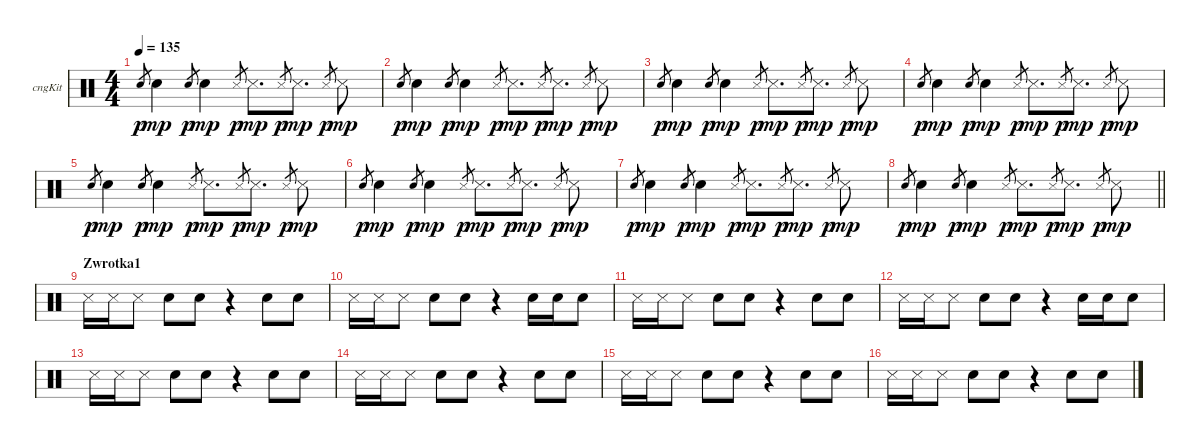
\bracketExtendMode groupsimilarinstruments
\firstSystemTrackNameOrientation horizontal
\otherSystemsTrackNameOrientation horizontal
\track ("Congas" "cngKit") {instrument percussion}
\staff {score}
\articulation defaults
\ts (4 4)
\tempo 135
\clef neutral
\ks c "Snare (hit) 2".8{gr dy p} "Snare (hit) 2".4{dy mp} "Snare (hit) 2".8{gr dy p} "Snare (hit) 2".4{dy mp} "Snare (side stick) 3".8{gr dy p} "Snare (side stick) 3".8{d dy mp} "Snare (side stick) 3".8{gr dy p} "Snare (side stick) 3".8{d dy mp} "Snare (side stick) 3".8{gr dy p} "Snare (side stick) 3".8{dy mp}
|
"Snare (hit) 2".8{gr dy p} "Snare (hit) 2".4{dy mp} "Snare (hit) 2".8{gr dy p} "Snare (hit) 2".4{dy mp} "Snare (side stick) 3".8{gr dy p} "Snare (side stick) 3".8{d dy mp} "Snare (side stick) 3".8{gr dy p} "Snare (side stick) 3".8{d dy mp} "Snare (side stick) 3".8{gr dy p} "Snare (side stick) 3".8{dy mp} |
"Snare (hit) 2".8{gr dy p} "Snare (hit) 2".4{dy mp} "Snare (hit) 2".8{gr dy p} "Snare (hit) 2".4{dy mp} "Snare (side stick) 3".8{gr dy p} "Snare (side stick) 3".8{d dy mp} "Snare (side stick) 3".8{gr dy p} "Snare (side stick) 3".8{d dy mp} "Snare (side stick) 3".8{gr dy p} "Snare (side stick) 3".8{dy mp} |
"Snare (hit) 2".8{gr dy p} "Snare (hit) 2".4{dy mp} "Snare (hit) 2".8{gr dy p} "Snare (hit) 2".4{dy mp} "Snare (side stick) 3".8{gr dy p} "Snare (side stick) 3".8{d dy mp} "Snare (side stick) 3".8{gr dy p} "Snare (side stick) 3".8{d dy mp} "Snare (side stick) 3".8{gr dy p} "Snare (side stick) 3".8{dy mp} |
"Snare (hit) 2".8{gr dy p} "Snare (hit) 2".4{dy mp} "Snare (hit) 2".8{gr dy p} "Snare (hit) 2".4{dy mp} "Snare (side stick) 3".8{gr dy p} "Snare (side stick) 3".8{d dy mp} "Snare (side stick) 3".8{gr dy p} "Snare (side stick) 3".8{d dy mp} "Snare (side stick) 3".8{gr dy p} "Snare (side stick) 3".8{dy mp} |
"Snare (hit) 2".8{gr dy p} "Snare (hit) 2".4{dy mp} "Snare (hit) 2".8{gr dy p} "Snare (hit) 2".4{dy mp} "Snare (side stick) 3".8{gr dy p} "Snare (side stick) 3".8{d dy mp} "Snare (side stick) 3".8{gr dy p} "Snare (side stick) 3".8{d dy mp} "Snare (side stick) 3".8{gr dy p} "Snare (side stick) 3".8{dy mp} |
"Snare (hit) 2".8{gr dy p} "Snare (hit) 2".4{dy mp} "Snare (hit) 2".8{gr dy p} "Snare (hit) 2".4{dy mp} "Snare (side stick) 3".8{gr dy p} "Snare (side stick) 3".8{d dy mp} "Snare (side stick) 3".8{gr dy p} "Snare (side stick) 3".8{d dy mp} "Snare (side stick) 3".8{gr dy p} "Snare (side stick) 3".8{dy mp} |
\barLineRight lightlight "Snare (hit) 2".8{gr dy p} "Snare (hit) 2".4{dy mp} "Snare (hit) 2".8{gr dy p} "Snare (hit) 2".4{dy mp} "Snare (side stick) 3".8{gr dy p} "Snare (side stick) 3".8{d dy mp} "Snare (side stick) 3".8{gr dy p} "Snare (side stick) 3".8{d dy mp} "Snare (side stick) 3".8{gr dy p} "Snare (side stick) 3".8{dy mp}
|
\section ("" "Zwrotka1")
"Snare (side stick) 3".16 "Snare (side stick) 3".16 "Snare (side stick) 3".8 "Snare (hit) 2".8 "Snare (hit) 2".8 r.4 "Snare (hit) 2".8 "Snare (hit) 2".8 |
"Snare (side stick) 3".16 "Snare (side stick) 3".16 "Snare (side stick) 3".8 "Snare (hit) 2".8 "Snare (hit) 2".8 r.4 "Snare (hit) 2".16 "Snare (hit) 2".16 "Snare (hit) 2".8 |
"Snare (side stick) 3".16 "Snare (side stick) 3".16 "Snare (side stick) 3".8 "Snare (hit) 2".8 "Snare (hit) 2".8 r.4 "Snare (hit) 2".8 "Snare (hit) 2".8 |
"Snare (side stick) 3".16 "Snare (side stick) 3".16 "Snare (side stick) 3".8 "Snare (hit) 2".8 "Snare (hit) 2".8 r.4 "Snare (hit) 2".16 "Snare (hit) 2".16 "Snare (hit) 2".8 |
"Snare (side stick) 3".16 "Snare (side stick) 3".16 "Snare (side stick) 3".8 "Snare (hit) 2".8 "Snare (hit) 2".8 r.4 "Snare (hit) 2".8 "Snare (hit) 2".8 |
"Snare (side stick) 3".16 "Snare (side stick) 3".16 "Snare (side stick) 3".8 "Snare (hit) 2".8 "Snare (hit) 2".8 r.4 "Snare (hit) 2".8 "Snare (hit) 2".8 |
"Snare (side stick) 3".16 "Snare (side stick) 3".16 "Snare (side stick) 3".8 "Snare (hit) 2".8 "Snare (hit) 2".8 r.4 "Snare (hit) 2".8 "Snare (hit) 2".8 |
"Snare (side stick) 3".16 "Snare (side stick) 3".16 "Snare (side stick) 3".8 "Snare (hit) 2".8 "Snare (hit) 2".8 r.4 "Snare (hit) 2".8 "Snare (hit) 2".8
